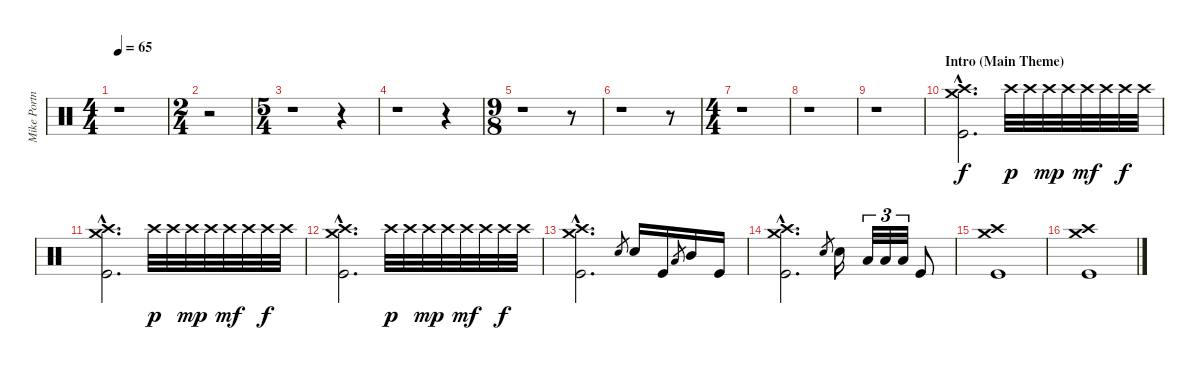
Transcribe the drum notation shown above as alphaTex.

\track ("Mike Portnoy" "Mike Portn") {instrument percussion}
\staff {score}
\articulation defaults
\ts (4 4)
\tempo 65
\clef neutral
\ks c
r.1{dy f} |
\ts (2 4)
r.2 |
\ts (5 4)
r.1 r.4 |
r.1 r.4 |
\ts (9 8)
r.1 r.8 |
r.1 r.8 |
\ts (4 4)
r.1 |
r.1 |
r.1 |
\section ("" "Intro (Main Theme)")
("Crash high (hit)"{hac} "Crash medium (hit)"{hac} "Kick (hit)"{hac}).2{d} "Crash high (hit)".32{dy p} "Crash high (hit)".32 "Crash high (hit)".32{dy mp} "Crash high (hit)".32 "Crash high (hit)".32{dy mf} "Crash high (hit)".32 "Crash high (hit)".32{dy f} "Crash high (hit)".32 |
("Crash high (hit)"{hac} "Crash medium (hit)"{hac} "Kick (hit)"{hac}).2{d} "Crash high (hit)".32{dy p} "Crash high (hit)".32 "Crash high (hit)".32{dy mp} "Crash high (hit)".32 "Crash high (hit)".32{dy mf} "Crash high (hit)".32 "Crash high (hit)".32{dy f} "Crash high (hit)".32 |
("Crash high (hit)"{hac} "Crash medium (hit)"{hac} "Kick (hit)"{hac}).2{d} "Crash high (hit)".32{dy p} "Crash high (hit)".32 "Crash high (hit)".32{dy mp} "Crash high (hit)".32 "Crash high (hit)".32{dy mf} "Crash high (hit)".32 "Crash high (hit)".32{dy f} "Crash high (hit)".32 |
("Crash high (hit)"{hac} "Crash medium (hit)"{hac} "Kick (hit)"{hac}).2{d} "Electric Snare (hit)".8{gr} "Electric Snare (hit)".16 "Kick (hit)".16 "Low Tom (hit)".8{gr} "Mid Tom (hit)".16 "Kick (hit)".16 |
("Crash high (hit)"{hac} "Crash medium (hit)"{hac} "Kick (hit)"{hac}).2{d} "Electric Snare (hit)".8{gr} "Electric Snare (hit)".16 "Low Floor Tom (hit)".32{tu (3 2)} "Low Floor Tom (hit)".32{tu (3 2)} "Low Floor Tom (hit)".32{tu (3 2)} "Kick (hit)".8 |
("Crash high (hit)" "Crash medium (hit)" "Kick (hit)").1 |
("Crash high (hit)" "Crash medium (hit)" "Kick (hit)").1
